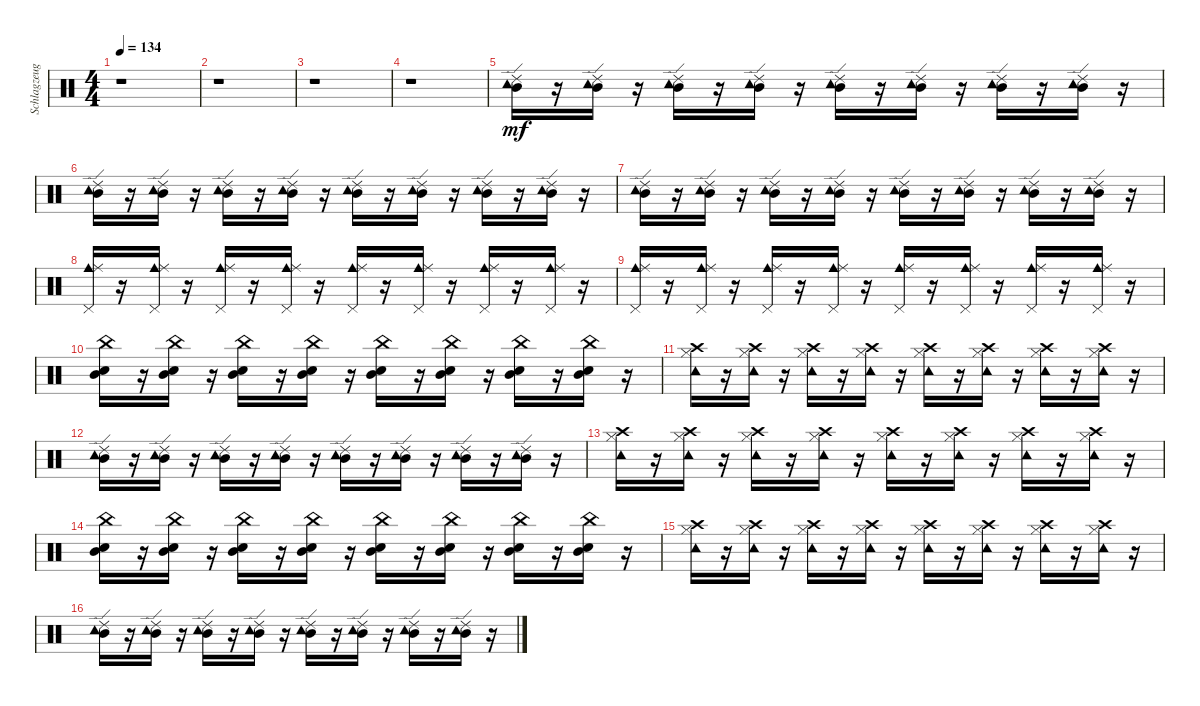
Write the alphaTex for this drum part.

\track ("Schlagzeug - Bela B." "Schlagzeug") {instrument percussion}
\staff {score}
\articulation defaults
\ts (4 4)
\tempo 134
\clef neutral
\ks c
r.1{dy mf} |
r.1 |
r.1 |
r.1 |
("Ride (edge) 2" "Tambourine (hit)" "Mid Tom (hit)").16 r.16 ("Mid Tom (hit)" "Tambourine (hit)" "Ride (edge) 2").16 r.16 ("Ride (edge) 2" "Tambourine (hit)" "Mid Tom (hit)").16 r.16 ("Mid Tom (hit)" "Tambourine (hit)" "Ride (edge) 2").16 r.16 ("Ride (edge) 2" "Tambourine (hit)" "Mid Tom (hit)").16 r.16 ("Mid Tom (hit)" "Tambourine (hit)" "Ride (edge) 2").16 r.16 ("Ride (edge) 2" "Tambourine (hit)" "Mid Tom (hit)").16 r.16 ("Mid Tom (hit)" "Tambourine (hit)" "Ride (edge) 2").16 r.16 |
("Ride (edge) 2" "Tambourine (hit)" "Mid Tom (hit)").16 r.16 ("Mid Tom (hit)" "Tambourine (hit)" "Ride (edge) 2").16 r.16 ("Ride (edge) 2" "Tambourine (hit)" "Mid Tom (hit)").16 r.16 ("Mid Tom (hit)" "Tambourine (hit)" "Ride (edge) 2").16 r.16 ("Ride (edge) 2" "Tambourine (hit)" "Mid Tom (hit)").16 r.16 ("Mid Tom (hit)" "Tambourine (hit)" "Ride (edge) 2").16 r.16 ("Ride (edge) 2" "Tambourine (hit)" "Mid Tom (hit)").16 r.16 ("Mid Tom (hit)" "Tambourine (hit)" "Ride (edge) 2").16 r.16 |
("Ride (edge) 2" "Tambourine (hit)" "Mid Tom (hit)").16 r.16 ("Mid Tom (hit)" "Tambourine (hit)" "Ride (edge) 2").16 r.16 ("Ride (edge) 2" "Tambourine (hit)" "Mid Tom (hit)").16 r.16 ("Mid Tom (hit)" "Tambourine (hit)" "Ride (edge) 2").16 r.16 ("Ride (edge) 2" "Tambourine (hit)" "Mid Tom (hit)").16 r.16 ("Mid Tom (hit)" "Tambourine (hit)" "Ride (edge) 2").16 r.16 ("Ride (edge) 2" "Tambourine (hit)" "Mid Tom (hit)").16 r.16 ("Mid Tom (hit)" "Tambourine (hit)" "Ride (edge) 2").16 r.16 |
("Cowbell medium (hit)" "Ride (middle)" "Pedal Hi-Hat (hit)").16 r.16 ("Cowbell medium (hit)" "Ride (middle)" "Pedal Hi-Hat (hit)").16 r.16 ("Cowbell medium (hit)" "Ride (middle)" "Pedal Hi-Hat (hit)").16 r.16 ("Cowbell medium (hit)" "Ride (middle)" "Pedal Hi-Hat (hit)").16 r.16 ("Cowbell medium (hit)" "Ride (middle)" "Pedal Hi-Hat (hit)").16 r.16 ("Cowbell medium (hit)" "Ride (middle)" "Pedal Hi-Hat (hit)").16 r.16 ("Cowbell medium (hit)" "Ride (middle)" "Pedal Hi-Hat (hit)").16 r.16 ("Cowbell medium (hit)" "Ride (middle)" "Pedal Hi-Hat (hit)").16 r.16 |
("Cowbell medium (hit)" "Ride (middle)" "Pedal Hi-Hat (hit)").16 r.16 ("Cowbell medium (hit)" "Ride (middle)" "Pedal Hi-Hat (hit)").16 r.16 ("Cowbell medium (hit)" "Ride (middle)" "Pedal Hi-Hat (hit)").16 r.16 ("Cowbell medium (hit)" "Ride (middle)" "Pedal Hi-Hat (hit)").16 r.16 ("Cowbell medium (hit)" "Ride (middle)" "Pedal Hi-Hat (hit)").16 r.16 ("Cowbell medium (hit)" "Ride (middle)" "Pedal Hi-Hat (hit)").16 r.16 ("Cowbell medium (hit)" "Ride (middle)" "Pedal Hi-Hat (hit)").16 r.16 ("Cowbell medium (hit)" "Ride (middle)" "Pedal Hi-Hat (hit)").16 r.16 |
("Electric Snare (hit)" "Mid Tom (hit)" "China (hit)").16 r.16 ("Electric Snare (hit)" "Mid Tom (hit)" "China (hit)").16 r.16 ("Electric Snare (hit)" "Mid Tom (hit)" "China (hit)").16 r.16 ("Electric Snare (hit)" "Mid Tom (hit)" "China (hit)").16 r.16 ("Electric Snare (hit)" "Mid Tom (hit)" "China (hit)").16 r.16 ("Electric Snare (hit)" "Mid Tom (hit)" "China (hit)").16 r.16 ("Electric Snare (hit)" "Mid Tom (hit)" "China (hit)").16 r.16 ("Electric Snare (hit)" "Mid Tom (hit)" "China (hit)").16 r.16 |
("Hi-Hat (closed)" "Crash high (hit)" "Tambourine (hit)").16 r.16 ("Hi-Hat (closed)" "Crash high (hit)" "Tambourine (hit)").16 r.16 ("Hi-Hat (closed)" "Crash high (hit)" "Tambourine (hit)").16 r.16 ("Hi-Hat (closed)" "Crash high (hit)" "Tambourine (hit)").16 r.16 ("Hi-Hat (closed)" "Crash high (hit)" "Tambourine (hit)").16 r.16 ("Hi-Hat (closed)" "Crash high (hit)" "Tambourine (hit)").16 r.16 ("Hi-Hat (closed)" "Crash high (hit)" "Tambourine (hit)").16 r.16 ("Hi-Hat (closed)" "Crash high (hit)" "Tambourine (hit)").16 r.16 |
("Ride (edge) 2" "Tambourine (hit)" "Mid Tom (hit)").16 r.16 ("Mid Tom (hit)" "Tambourine (hit)" "Ride (edge) 2").16 r.16 ("Ride (edge) 2" "Tambourine (hit)" "Mid Tom (hit)").16 r.16 ("Mid Tom (hit)" "Tambourine (hit)" "Ride (edge) 2").16 r.16 ("Ride (edge) 2" "Tambourine (hit)" "Mid Tom (hit)").16 r.16 ("Mid Tom (hit)" "Tambourine (hit)" "Ride (edge) 2").16 r.16 ("Ride (edge) 2" "Tambourine (hit)" "Mid Tom (hit)").16 r.16 ("Mid Tom (hit)" "Tambourine (hit)" "Ride (edge) 2").16 r.16 |
("Hi-Hat (closed)" "Crash high (hit)" "Tambourine (hit)").16 r.16 ("Hi-Hat (closed)" "Crash high (hit)" "Tambourine (hit)").16 r.16 ("Hi-Hat (closed)" "Crash high (hit)" "Tambourine (hit)").16 r.16 ("Hi-Hat (closed)" "Crash high (hit)" "Tambourine (hit)").16 r.16 ("Hi-Hat (closed)" "Crash high (hit)" "Tambourine (hit)").16 r.16 ("Hi-Hat (closed)" "Crash high (hit)" "Tambourine (hit)").16 r.16 ("Hi-Hat (closed)" "Crash high (hit)" "Tambourine (hit)").16 r.16 ("Hi-Hat (closed)" "Crash high (hit)" "Tambourine (hit)").16 r.16 |
("Electric Snare (hit)" "Mid Tom (hit)" "China (hit)").16 r.16 ("Electric Snare (hit)" "Mid Tom (hit)" "China (hit)").16 r.16 ("Electric Snare (hit)" "Mid Tom (hit)" "China (hit)").16 r.16 ("Electric Snare (hit)" "Mid Tom (hit)" "China (hit)").16 r.16 ("Electric Snare (hit)" "Mid Tom (hit)" "China (hit)").16 r.16 ("Electric Snare (hit)" "Mid Tom (hit)" "China (hit)").16 r.16 ("Electric Snare (hit)" "Mid Tom (hit)" "China (hit)").16 r.16 ("Electric Snare (hit)" "Mid Tom (hit)" "China (hit)").16 r.16 |
("Hi-Hat (closed)" "Crash high (hit)" "Tambourine (hit)").16 r.16 ("Hi-Hat (closed)" "Crash high (hit)" "Tambourine (hit)").16 r.16 ("Hi-Hat (closed)" "Crash high (hit)" "Tambourine (hit)").16 r.16 ("Hi-Hat (closed)" "Crash high (hit)" "Tambourine (hit)").16 r.16 ("Hi-Hat (closed)" "Crash high (hit)" "Tambourine (hit)").16 r.16 ("Hi-Hat (closed)" "Crash high (hit)" "Tambourine (hit)").16 r.16 ("Hi-Hat (closed)" "Crash high (hit)" "Tambourine (hit)").16 r.16 ("Hi-Hat (closed)" "Crash high (hit)" "Tambourine (hit)").16 r.16 |
("Ride (edge) 2" "Tambourine (hit)" "Mid Tom (hit)").16 r.16 ("Mid Tom (hit)" "Tambourine (hit)" "Ride (edge) 2").16 r.16 ("Ride (edge) 2" "Tambourine (hit)" "Mid Tom (hit)").16 r.16 ("Mid Tom (hit)" "Tambourine (hit)" "Ride (edge) 2").16 r.16 ("Ride (edge) 2" "Tambourine (hit)" "Mid Tom (hit)").16 r.16 ("Mid Tom (hit)" "Tambourine (hit)" "Ride (edge) 2").16 r.16 ("Ride (edge) 2" "Tambourine (hit)" "Mid Tom (hit)").16 r.16 ("Mid Tom (hit)" "Tambourine (hit)" "Ride (edge) 2").16 r.16
